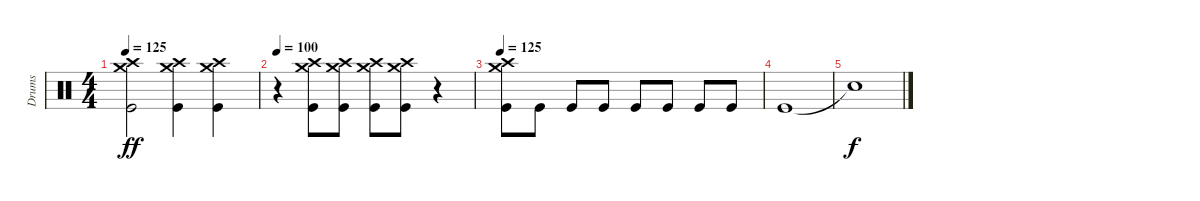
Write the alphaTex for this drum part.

\track ("Drums" "Drums") {instrument percussion}
\staff {score}
\articulation defaults
\ts (4 4)
\tempo 125
\clef neutral
\ks c
("Crash medium (hit)" "Crash high (hit)" "Kick (hit)").2{dy ff} ("Crash medium (hit)" "Crash high (hit)" "Kick (hit)").4 ("Crash medium (hit)" "Crash high (hit)" "Kick (hit)").4 |
\tempo 100
r.4 ("Crash medium (hit)" "Crash high (hit)" "Kick (hit)").8 ("Crash medium (hit)" "Crash high (hit)" "Kick (hit)").8 ("Crash medium (hit)" "Crash high (hit)" "Kick (hit)").8 ("Crash medium (hit)" "Crash high (hit)" "Kick (hit)").8 r.4 |
\tempo 125
("Crash medium (hit)" "Crash high (hit)" "Kick (hit)").8 "Kick (hit)".8 "Kick (hit)".8 "Kick (hit)".8 "Kick (hit)".8 "Kick (hit)".8 "Kick (hit)".8 "Kick (hit)".8 |
"Kick (hit)".1 |
"Snare (hit)"{t}.1{dy f}
